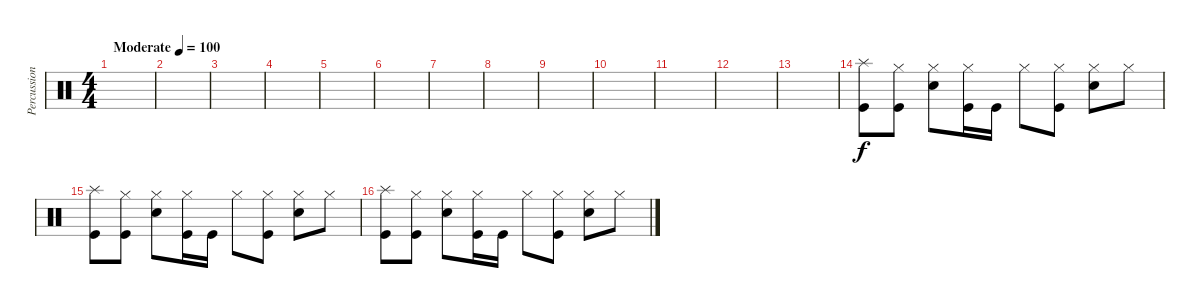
\track ("Percussions" "Percussion") {instrument percussion}
\staff {score}
\articulation defaults
\ts (4 4)
\tempo (100 "Moderate")
\clef neutral
\ks c
|
|
|
|
|
|
|
|
|
|
|
|
|
("Splash (hit)" "Kick (hit)").8 ("Hi-Hat (closed)" "Kick (hit)").8 ("Hi-Hat (closed)" "Snare (hit) 2").8 ("Hi-Hat (closed)" "Kick (hit)").16 "Kick (hit)".16 "Hi-Hat (closed)".8 ("Hi-Hat (closed)" "Kick (hit)").8 ("Hi-Hat (closed)" "Snare (hit) 2").8 "Hi-Hat (closed)".8 |
("Splash (hit)" "Kick (hit)").8 ("Hi-Hat (closed)" "Kick (hit)").8 ("Hi-Hat (closed)" "Snare (hit) 2").8 ("Hi-Hat (closed)" "Kick (hit)").16 "Kick (hit)".16 "Hi-Hat (closed)".8 ("Hi-Hat (closed)" "Kick (hit)").8 ("Hi-Hat (closed)" "Snare (hit) 2").8 "Hi-Hat (closed)".8 |
("Splash (hit)" "Kick (hit)").8 ("Hi-Hat (closed)" "Kick (hit)").8 ("Hi-Hat (closed)" "Snare (hit) 2").8 ("Hi-Hat (closed)" "Kick (hit)").16 "Kick (hit)".16 "Hi-Hat (closed)".8 ("Hi-Hat (closed)" "Kick (hit)").8 ("Hi-Hat (closed)" "Snare (hit) 2").8 "Hi-Hat (closed)".8
